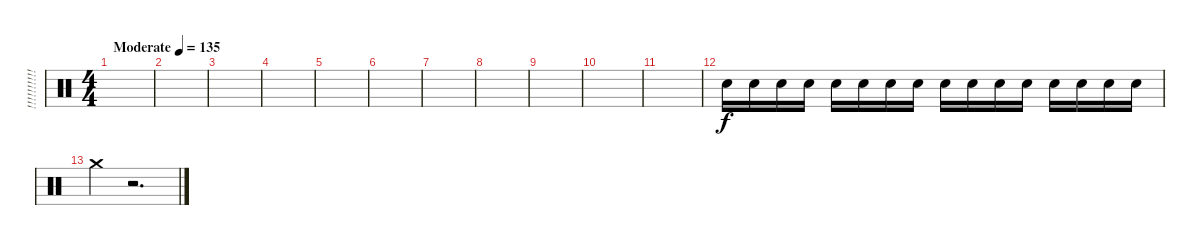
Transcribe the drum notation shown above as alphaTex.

\track ("!!!!!!!!!!!!!" "!!!!!!!!!!") {instrument percussion}
\staff {score}
\articulation defaults
\ts (4 4)
\tempo (135 "Moderate")
\clef neutral
\ks c
|
|
|
|
|
|
|
|
|
|
|
"Electric Snare (hit)".16 "Electric Snare (hit)".16 "Electric Snare (hit)".16 "Electric Snare (hit)".16 "Electric Snare (hit)".16 "Electric Snare (hit)".16 "Electric Snare (hit)".16 "Electric Snare (hit)".16 "Electric Snare (hit)".16 "Electric Snare (hit)".16 "Electric Snare (hit)".16 "Electric Snare (hit)".16 "Electric Snare (hit)".16 "Electric Snare (hit)".16 "Electric Snare (hit)".16 "Electric Snare (hit)".16 |
"Crash medium (hit)".4{dy f} r.2{d}
